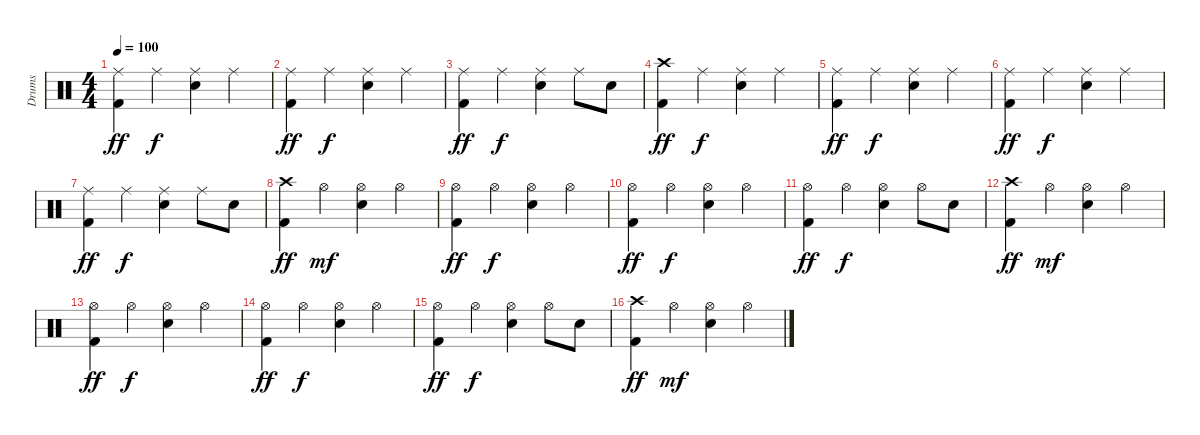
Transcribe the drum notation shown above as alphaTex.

\track ("Drums" "Drums") {instrument percussion}
\staff {score}
\articulation defaults
\ts (4 4)
\tempo 100
\clef neutral
\ks c
("Ride (middle)" "Kick (hit) 2").4{dy ff} "Ride (middle)".4{dy f} ("Ride (middle)" "Electric Snare (hit)").4 "Ride (middle)".4 |
("Ride (middle)" "Kick (hit) 2").4{dy ff} "Ride (middle)".4{dy f} ("Ride (middle)" "Electric Snare (hit)").4 "Ride (middle)".4 |
("Ride (middle)" "Kick (hit) 2").4{dy ff} "Ride (middle)".4{dy f} ("Ride (middle)" "Electric Snare (hit)").4 "Ride (middle)".8 "Electric Snare (hit)".8 |
("Crash high (hit)" "Kick (hit) 2").4{dy ff volume 7} "Ride (middle)".4{dy f} ("Ride (middle)" "Electric Snare (hit)").4 "Ride (middle)".4 |
("Ride (middle)" "Kick (hit) 2").4{dy ff} "Ride (middle)".4{dy f} ("Ride (middle)" "Electric Snare (hit)").4 "Ride (middle)".4 |
("Ride (middle)" "Kick (hit) 2").4{dy ff} "Ride (middle)".4{dy f} ("Ride (middle)" "Electric Snare (hit)").4 "Ride (middle)".4 |
("Ride (middle)" "Kick (hit) 2").4{dy ff} "Ride (middle)".4{dy f} ("Ride (middle)" "Electric Snare (hit)").4 "Ride (middle)".8 "Electric Snare (hit)".8 |
("Crash high (hit)" "Kick (hit) 2").4{dy ff volume 5} "Hi-Hat (open)".4{dy mf} ("Hi-Hat (open)" "Electric Snare (hit)").4 "Hi-Hat (open)".4 |
("Hi-Hat (open)" "Kick (hit) 2").4{dy ff} "Hi-Hat (open)".4{dy f} ("Hi-Hat (open)" "Electric Snare (hit)").4 "Hi-Hat (open)".4 |
("Hi-Hat (open)" "Kick (hit) 2").4{dy ff} "Hi-Hat (open)".4{dy f} ("Hi-Hat (open)" "Electric Snare (hit)").4 "Hi-Hat (open)".4 |
("Hi-Hat (open)" "Kick (hit) 2").4{dy ff} "Hi-Hat (open)".4{dy f} ("Hi-Hat (open)" "Electric Snare (hit)").4 "Hi-Hat (open)".8 "Electric Snare (hit)".8 |
("Crash high (hit)" "Kick (hit) 2").4{dy ff volume 4} "Hi-Hat (open)".4{dy mf} ("Hi-Hat (open)" "Electric Snare (hit)").4 "Hi-Hat (open)".4 |
("Hi-Hat (open)" "Kick (hit) 2").4{dy ff} "Hi-Hat (open)".4{dy f} ("Hi-Hat (open)" "Electric Snare (hit)").4 "Hi-Hat (open)".4 |
("Hi-Hat (open)" "Kick (hit) 2").4{dy ff} "Hi-Hat (open)".4{dy f} ("Hi-Hat (open)" "Electric Snare (hit)").4 "Hi-Hat (open)".4 |
("Hi-Hat (open)" "Kick (hit) 2").4{dy ff} "Hi-Hat (open)".4{dy f} ("Hi-Hat (open)" "Electric Snare (hit)").4 "Hi-Hat (open)".8 "Electric Snare (hit)".8 |
("Crash high (hit)" "Kick (hit) 2").4{dy ff volume 2} "Hi-Hat (open)".4{dy mf} ("Hi-Hat (open)" "Electric Snare (hit)").4 "Hi-Hat (open)".4
